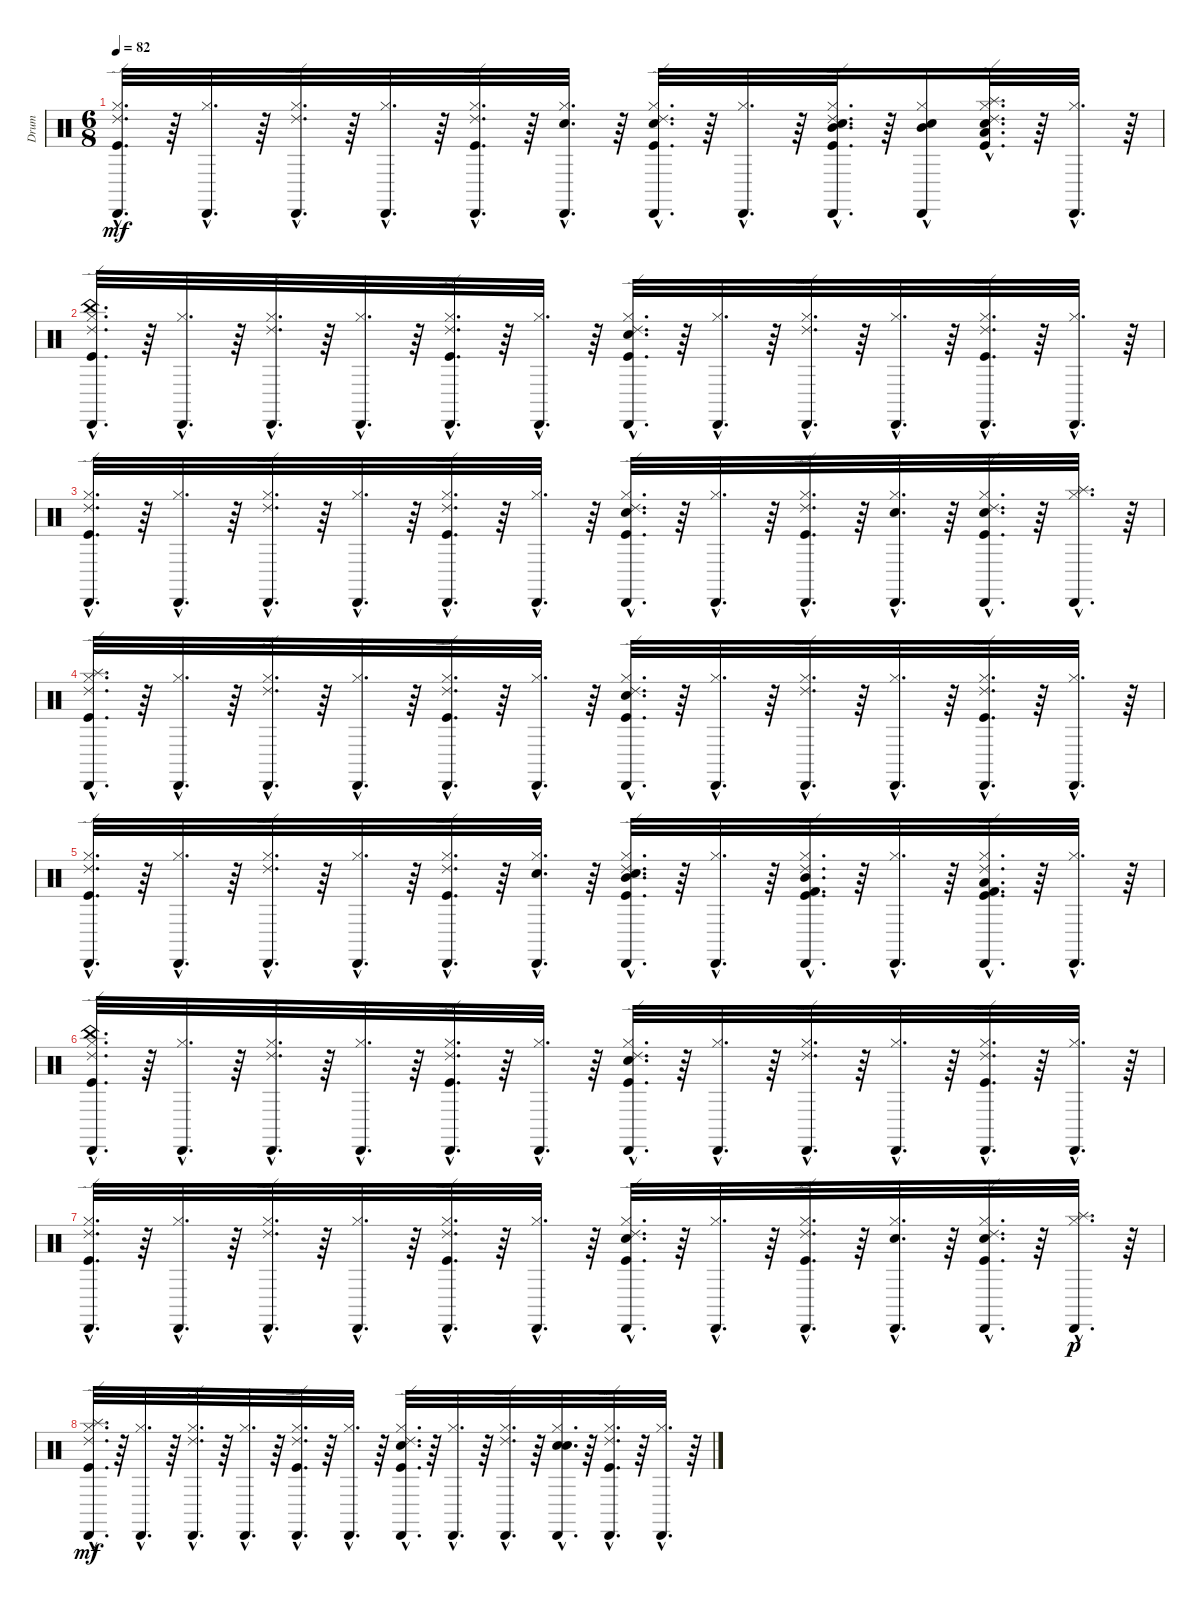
\track ("Drum" "Drum") {instrument percussion}
\staff {score}
\articulation defaults
\ts (6 8)
\tempo 82
\clef neutral
\ks c
("Kick (hit)"{hac} "Hi-Hat (closed)"{hac} "Ride (edge) 2"{hac} "Cabasa (hit)"{hac}).32{d dy mf} r.64 ("Hi-Hat (closed)"{hac} "Cabasa (hit)"{hac}).32{d} r.64 ("Hi-Hat (closed)"{hac} "Ride (edge) 2"{hac} "Cabasa (hit)"{hac}).32{d} r.64 ("Hi-Hat (closed)"{hac} "Cabasa (hit)"{hac}).32{d} r.64 ("Kick (hit)"{hac} "Hi-Hat (closed)"{hac} "Ride (edge) 2"{hac} "Cabasa (hit)"{hac}).32{d} r.64 ("Snare (hit) 2"{hac} "Hi-Hat (closed)"{hac} "Cabasa (hit)"{hac}).32{d} r.64 ("Kick (hit)"{hac} "Snare (hit) 2"{hac} "Hi-Hat (closed)"{hac} "Ride (edge) 2"{hac} "Cabasa (hit)"{hac}).32{d} r.64 ("Hi-Hat (closed)"{hac} "Cabasa (hit)"{hac}).32{d} r.64 ("Kick (hit)"{hac} "Hi-Hat (closed)"{hac} "Electric Snare (hit)"{hac} "Mid Tom (hit)"{hac} "Ride (edge) 2"{hac} "Cabasa (hit)"{hac}).32{d} r.64 ("Hi-Hat (closed)"{hac} "Electric Snare (hit)"{hac} "Mid Tom (hit)"{hac} "Cabasa (hit)"{hac}).16 ("Splash (hit)"{hac} "Kick (hit)"{hac} "Hi-Hat (closed)"{hac} "Electric Snare (hit)"{hac} "Low Tom (hit)"{hac} "Ride (edge) 2"{hac}).32{d} r.64 ("Hi-Hat (closed)"{hac} "Cabasa (hit)"{hac}).32{d} r.64 |
("Cabasa (hit)"{hac} "Ride (edge) 2"{hac} "China (hit)"{hac} "Kick (hit)"{hac} "Hi-Hat (closed)"{hac}).32{d} r.64 ("Cabasa (hit)"{hac} "Hi-Hat (closed)"{hac}).32{d} r.64 ("Cabasa (hit)"{hac} "Ride (edge) 2"{hac} "Hi-Hat (closed)"{hac}).32{d} r.64 ("Cabasa (hit)"{hac} "Hi-Hat (closed)"{hac}).32{d} r.64 ("Cabasa (hit)"{hac} "Ride (edge) 2"{hac} "Kick (hit)"{hac} "Hi-Hat (closed)"{hac}).32{d} r.64 ("Cabasa (hit)"{hac} "Hi-Hat (closed)"{hac}).32{d} r.64 ("Cabasa (hit)"{hac} "Ride (edge) 2"{hac} "Kick (hit)"{hac} "Snare (hit) 2"{hac} "Hi-Hat (closed)"{hac}).32{d} r.64 ("Cabasa (hit)"{hac} "Hi-Hat (closed)"{hac}).32{d} r.64 ("Cabasa (hit)"{hac} "Ride (edge) 2"{hac} "Hi-Hat (closed)"{hac}).32{d} r.64 ("Cabasa (hit)"{hac} "Hi-Hat (closed)"{hac}).32{d} r.64 ("Cabasa (hit)"{hac} "Ride (edge) 2"{hac} "Kick (hit)"{hac} "Hi-Hat (closed)"{hac}).32{d} r.64 ("Cabasa (hit)"{hac} "Hi-Hat (closed)"{hac}).32{d} r.64 |
("Cabasa (hit)"{hac} "Ride (edge) 2"{hac} "Kick (hit)"{hac} "Hi-Hat (closed)"{hac}).32{d} r.64 ("Cabasa (hit)"{hac} "Hi-Hat (closed)"{hac}).32{d} r.64 ("Cabasa (hit)"{hac} "Ride (edge) 2"{hac} "Hi-Hat (closed)"{hac}).32{d} r.64 ("Cabasa (hit)"{hac} "Hi-Hat (closed)"{hac}).32{d} r.64 ("Cabasa (hit)"{hac} "Ride (edge) 2"{hac} "Kick (hit)"{hac} "Hi-Hat (closed)"{hac}).32{d} r.64 ("Cabasa (hit)"{hac} "Hi-Hat (closed)"{hac}).32{d} r.64 ("Cabasa (hit)"{hac} "Ride (edge) 2"{hac} "Kick (hit)"{hac} "Snare (hit) 2"{hac} "Hi-Hat (closed)"{hac}).32{d} r.64 ("Cabasa (hit)"{hac} "Hi-Hat (closed)"{hac}).32{d} r.64 ("Cabasa (hit)"{hac} "Ride (edge) 2"{hac} "Kick (hit)"{hac} "Hi-Hat (closed)"{hac}).32{d} r.64 ("Cabasa (hit)"{hac} "Snare (hit) 2"{hac} "Hi-Hat (closed)"{hac}).32{d} r.64 ("Cabasa (hit)"{hac} "Ride (edge) 2"{hac} "Kick (hit)"{hac} "Snare (hit) 2"{hac} "Hi-Hat (closed)"{hac}).32{d} r.64 ("Cabasa (hit)"{hac} "Splash (hit)"{hac} "Hi-Hat (closed)"{hac}).32{d} r.64 |
("Hi-Hat (closed)"{hac} "Kick (hit)"{hac} "Splash (hit)"{hac} "Ride (edge) 2"{hac} "Cabasa (hit)"{hac}).32{d} r.64 ("Hi-Hat (closed)"{hac} "Cabasa (hit)"{hac}).32{d} r.64 ("Hi-Hat (closed)"{hac} "Ride (edge) 2"{hac} "Cabasa (hit)"{hac}).32{d} r.64 ("Hi-Hat (closed)"{hac} "Cabasa (hit)"{hac}).32{d} r.64 ("Hi-Hat (closed)"{hac} "Kick (hit)"{hac} "Ride (edge) 2"{hac} "Cabasa (hit)"{hac}).32{d} r.64 ("Hi-Hat (closed)"{hac} "Cabasa (hit)"{hac}).32{d} r.64 ("Hi-Hat (closed)"{hac} "Snare (hit) 2"{hac} "Kick (hit)"{hac} "Ride (edge) 2"{hac} "Cabasa (hit)"{hac}).32{d} r.64 ("Hi-Hat (closed)"{hac} "Cabasa (hit)"{hac}).32{d} r.64 ("Hi-Hat (closed)"{hac} "Ride (edge) 2"{hac} "Cabasa (hit)"{hac}).32{d} r.64 ("Hi-Hat (closed)"{hac} "Cabasa (hit)"{hac}).32{d} r.64 ("Hi-Hat (closed)"{hac} "Kick (hit)"{hac} "Ride (edge) 2"{hac} "Cabasa (hit)"{hac}).32{d} r.64 ("Hi-Hat (closed)"{hac} "Cabasa (hit)"{hac}).32{d} r.64 |
("Cabasa (hit)"{hac} "Ride (edge) 2"{hac} "Kick (hit)"{hac} "Hi-Hat (closed)"{hac}).32{d} r.64 ("Hi-Hat (closed)"{hac} "Cabasa (hit)"{hac}).32{d} r.64 ("Ride (edge) 2"{hac} "Cabasa (hit)"{hac} "Hi-Hat (closed)"{hac}).32{d} r.64 ("Cabasa (hit)"{hac} "Hi-Hat (closed)"{hac}).32{d} r.64 ("Kick (hit)"{hac} "Cabasa (hit)"{hac} "Ride (edge) 2"{hac} "Hi-Hat (closed)"{hac}).32{d} r.64 ("Snare (hit) 2"{hac} "Cabasa (hit)"{hac} "Hi-Hat (closed)"{hac}).32{d} r.64 ("Kick (hit)"{hac} "Ride (edge) 2"{hac} "Hi-Hat (closed)"{hac} "Mid Tom (hit)"{hac} "Cabasa (hit)"{hac} "Snare (hit) 2"{hac}).32{d} r.64 ("Cabasa (hit)"{hac} "Hi-Hat (closed)"{hac}).32{d} r.64 ("Kick (hit)"{hac} "Cabasa (hit)"{hac} "Kick (hit) 2"{hac} "Ride (edge) 2"{hac} "Mid Tom (hit)"{hac} "Hi-Hat (closed)"{hac}).32{d} r.64 ("Cabasa (hit)"{hac} "Hi-Hat (closed)"{hac}).32{d} r.64 ("Low Tom (hit)"{hac} "Cabasa (hit)"{hac} "Hi-Hat (closed)"{hac} "Kick (hit) 2"{hac} "Kick (hit)"{hac} "Ride (edge) 2"{hac}).32{d} r.64 ("Cabasa (hit)"{hac} "Hi-Hat (closed)"{hac}).32{d} r.64 |
("Hi-Hat (closed)"{hac} "Kick (hit)"{hac} "China (hit)"{hac} "Ride (edge) 2"{hac} "Cabasa (hit)"{hac}).32{d} r.64 ("Hi-Hat (closed)"{hac} "Cabasa (hit)"{hac}).32{d} r.64 ("Hi-Hat (closed)"{hac} "Ride (edge) 2"{hac} "Cabasa (hit)"{hac}).32{d} r.64 ("Hi-Hat (closed)"{hac} "Cabasa (hit)"{hac}).32{d} r.64 ("Hi-Hat (closed)"{hac} "Kick (hit)"{hac} "Ride (edge) 2"{hac} "Cabasa (hit)"{hac}).32{d} r.64 ("Hi-Hat (closed)"{hac} "Cabasa (hit)"{hac}).32{d} r.64 ("Hi-Hat (closed)"{hac} "Snare (hit) 2"{hac} "Kick (hit)"{hac} "Ride (edge) 2"{hac} "Cabasa (hit)"{hac}).32{d} r.64 ("Hi-Hat (closed)"{hac} "Cabasa (hit)"{hac}).32{d} r.64 ("Hi-Hat (closed)"{hac} "Ride (edge) 2"{hac} "Cabasa (hit)"{hac}).32{d} r.64 ("Hi-Hat (closed)"{hac} "Cabasa (hit)"{hac}).32{d} r.64 ("Hi-Hat (closed)"{hac} "Kick (hit)"{hac} "Ride (edge) 2"{hac} "Cabasa (hit)"{hac}).32{d} r.64 ("Hi-Hat (closed)"{hac} "Cabasa (hit)"{hac}).32{d} r.64 |
("Hi-Hat (closed)"{hac} "Kick (hit)"{hac} "Ride (edge) 2"{hac} "Cabasa (hit)"{hac}).32{d} r.64 ("Hi-Hat (closed)"{hac} "Cabasa (hit)"{hac}).32{d} r.64 ("Hi-Hat (closed)"{hac} "Ride (edge) 2"{hac} "Cabasa (hit)"{hac}).32{d} r.64 ("Hi-Hat (closed)"{hac} "Cabasa (hit)"{hac}).32{d} r.64 ("Hi-Hat (closed)"{hac} "Kick (hit)"{hac} "Ride (edge) 2"{hac} "Cabasa (hit)"{hac}).32{d} r.64 ("Hi-Hat (closed)"{hac} "Cabasa (hit)"{hac}).32{d} r.64 ("Hi-Hat (closed)"{hac} "Snare (hit) 2"{hac} "Kick (hit)"{hac} "Ride (edge) 2"{hac} "Cabasa (hit)"{hac}).32{d} r.64 ("Hi-Hat (closed)"{hac} "Cabasa (hit)"{hac}).32{d} r.64 ("Hi-Hat (closed)"{hac} "Kick (hit)"{hac} "Ride (edge) 2"{hac} "Cabasa (hit)"{hac}).32{d} r.64 ("Hi-Hat (closed)"{hac} "Snare (hit) 2"{hac} "Cabasa (hit)"{hac}).32{d} r.64 ("Hi-Hat (closed)"{hac} "Snare (hit) 2"{hac} "Kick (hit)"{hac} "Ride (edge) 2"{hac} "Cabasa (hit)"{hac}).32{d} r.64 ("Hi-Hat (closed)"{hac} "Splash (hit)"{hac} "Cabasa (hit)"{hac}).32{d dy p} r.64 |
("Kick (hit)"{hac} "Hi-Hat (closed)"{hac} "Splash (hit)"{hac} "Ride (edge) 2"{hac} "Cabasa (hit)"{hac}).32{d dy mf} r.64 ("Hi-Hat (closed)"{hac} "Cabasa (hit)"{hac}).32{d} r.64 ("Hi-Hat (closed)"{hac} "Ride (edge) 2"{hac} "Cabasa (hit)"{hac}).32{d} r.64 ("Hi-Hat (closed)"{hac} "Cabasa (hit)"{hac}).32{d} r.64 ("Kick (hit)"{hac} "Hi-Hat (closed)"{hac} "Ride (edge) 2"{hac} "Cabasa (hit)"{hac}).32{d} r.64 ("Hi-Hat (closed)"{hac} "Cabasa (hit)"{hac}).32{d} r.64 ("Kick (hit)"{hac} "Snare (hit) 2"{hac} "Hi-Hat (closed)"{hac} "Ride (edge) 2"{hac} "Cabasa (hit)"{hac}).32{d} r.64 ("Hi-Hat (closed)"{hac} "Cabasa (hit)"{hac}).32{d} r.64 ("Hi-Hat (closed)"{hac} "Ride (edge) 2"{hac} "Cabasa (hit)"{hac}).32{d} r.64 ("Hi-Hat (closed)"{hac} "Snare (hit) 2"{hac} "Cabasa (hit)"{hac} "Electric Snare (hit)"{hac}).32{d} r.64 ("Kick (hit)"{hac} "Hi-Hat (closed)"{hac} "Ride (edge) 2"{hac} "Cabasa (hit)"{hac}).32{d} r.64 ("Hi-Hat (closed)"{hac} "Cabasa (hit)"{hac}).32{d} r.64
